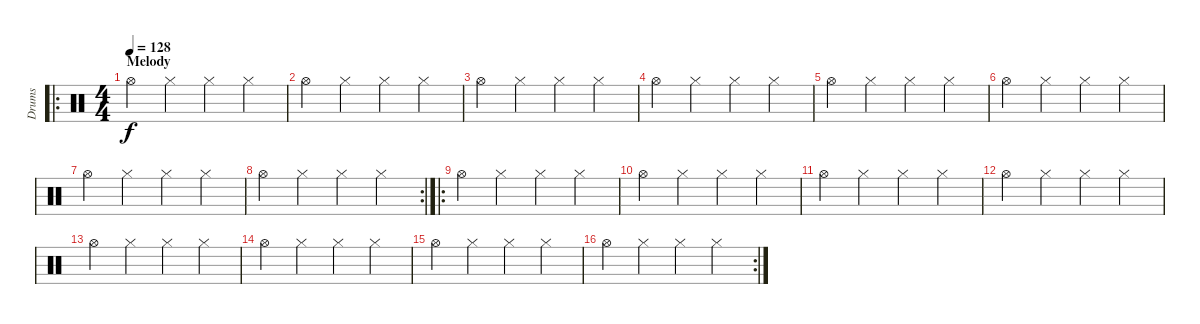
\track ("Drums" "Drums") {instrument percussion}
\staff {score}
\articulation defaults
\ro
\ts (4 4)
\section ("" "Melody")
\tempo 128
\clef neutral
\ks c "Hi-Hat (open)".4{dy f} "Hi-Hat (closed)".4 "Hi-Hat (closed)".4 "Hi-Hat (closed)".4
|
"Hi-Hat (open)".4 "Hi-Hat (closed)".4 "Hi-Hat (closed)".4 "Hi-Hat (closed)".4 |
"Hi-Hat (open)".4 "Hi-Hat (closed)".4 "Hi-Hat (closed)".4 "Hi-Hat (closed)".4 |
"Hi-Hat (open)".4 "Hi-Hat (closed)".4 "Hi-Hat (closed)".4 "Hi-Hat (closed)".4 |
"Hi-Hat (open)".4 "Hi-Hat (closed)".4 "Hi-Hat (closed)".4 "Hi-Hat (closed)".4 |
"Hi-Hat (open)".4 "Hi-Hat (closed)".4 "Hi-Hat (closed)".4 "Hi-Hat (closed)".4 |
"Hi-Hat (open)".4 "Hi-Hat (closed)".4 "Hi-Hat (closed)".4 "Hi-Hat (closed)".4 |
\rc 2 "Hi-Hat (open)".4 "Hi-Hat (closed)".4 "Hi-Hat (closed)".4 "Hi-Hat (closed)".4
|
\ro "Hi-Hat (open)".4 "Hi-Hat (closed)".4 "Hi-Hat (closed)".4 "Hi-Hat (closed)".4
|
"Hi-Hat (open)".4 "Hi-Hat (closed)".4 "Hi-Hat (closed)".4 "Hi-Hat (closed)".4 |
"Hi-Hat (open)".4 "Hi-Hat (closed)".4 "Hi-Hat (closed)".4 "Hi-Hat (closed)".4 |
"Hi-Hat (open)".4 "Hi-Hat (closed)".4 "Hi-Hat (closed)".4 "Hi-Hat (closed)".4 |
"Hi-Hat (open)".4 "Hi-Hat (closed)".4 "Hi-Hat (closed)".4 "Hi-Hat (closed)".4 |
"Hi-Hat (open)".4 "Hi-Hat (closed)".4 "Hi-Hat (closed)".4 "Hi-Hat (closed)".4 |
"Hi-Hat (open)".4 "Hi-Hat (closed)".4 "Hi-Hat (closed)".4 "Hi-Hat (closed)".4 |
\rc 2 "Hi-Hat (open)".4 "Hi-Hat (closed)".4 "Hi-Hat (closed)".4 "Hi-Hat (closed)".4
